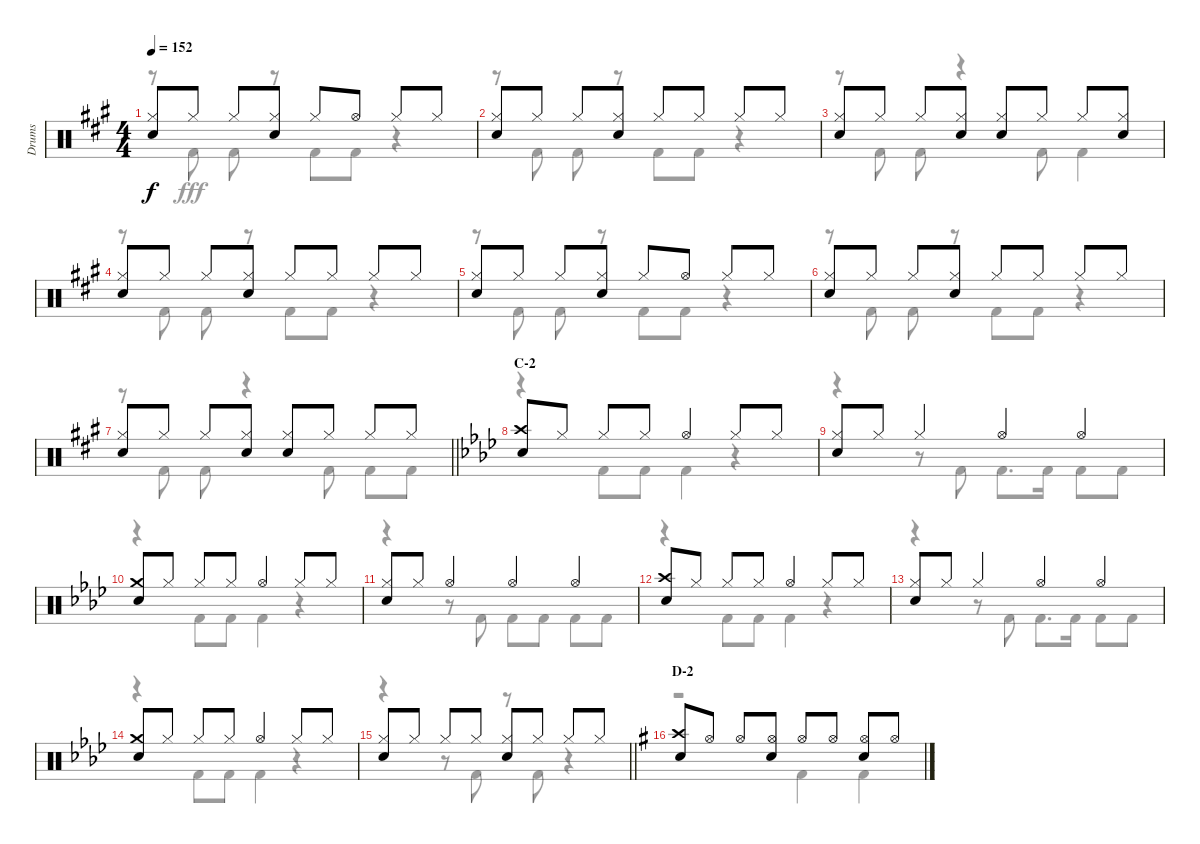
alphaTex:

\track ("Drums" "Drums") {instrument percussion}
\staff {score}
\articulation defaults
\voice
\ts (4 4)
\tempo 152
\clef neutral
\ks a
("Hi-Hat (closed)" "Snare (hit) 2").8{dy f} "Hi-Hat (closed)".8 "Hi-Hat (closed)".8 ("Hi-Hat (closed)" "Snare (hit) 2").8 "Hi-Hat (closed)".8 "Hi-Hat (open)".8 "Hi-Hat (closed)".8 "Hi-Hat (closed)".8 |
("Hi-Hat (closed)" "Snare (hit) 2").8 "Hi-Hat (closed)".8 "Hi-Hat (closed)".8 ("Hi-Hat (closed)" "Snare (hit) 2").8 "Hi-Hat (closed)".8 "Hi-Hat (closed)".8 "Hi-Hat (closed)".8 "Hi-Hat (closed)".8 |
("Hi-Hat (closed)" "Snare (hit) 2").8 "Hi-Hat (closed)".8 "Hi-Hat (closed)".8 ("Hi-Hat (closed)" "Snare (hit) 2").8 ("Hi-Hat (closed)" "Snare (hit) 2").8 "Hi-Hat (closed)".8 "Hi-Hat (closed)".8 ("Hi-Hat (closed)" "Snare (hit) 2").8 |
("Hi-Hat (closed)" "Snare (hit) 2").8 "Hi-Hat (closed)".8 "Hi-Hat (closed)".8 ("Hi-Hat (closed)" "Snare (hit) 2").8 "Hi-Hat (closed)".8 "Hi-Hat (closed)".8 "Hi-Hat (closed)".8 "Hi-Hat (closed)".8 |
("Hi-Hat (closed)" "Snare (hit) 2").8 "Hi-Hat (closed)".8 "Hi-Hat (closed)".8 ("Hi-Hat (closed)" "Snare (hit) 2").8 "Hi-Hat (closed)".8 "Hi-Hat (open)".8 "Hi-Hat (closed)".8 "Hi-Hat (closed)".8 |
("Hi-Hat (closed)" "Snare (hit) 2").8 "Hi-Hat (closed)".8 "Hi-Hat (closed)".8 ("Hi-Hat (closed)" "Snare (hit) 2").8 "Hi-Hat (closed)".8 "Hi-Hat (closed)".8 "Hi-Hat (closed)".8 "Hi-Hat (closed)".8 |
\barLineRight lightlight
("Hi-Hat (closed)" "Snare (hit) 2").8 "Hi-Hat (closed)".8 "Hi-Hat (closed)".8 ("Hi-Hat (closed)" "Snare (hit) 2").8 ("Hi-Hat (closed)" "Snare (hit) 2").8 "Hi-Hat (closed)".8 "Hi-Hat (closed)".8 "Hi-Hat (closed)".8 |
\section ("" "C-2")
\ks ab
("Crash high (hit)" "Snare (hit) 2").8 "Hi-Hat (closed)".8 "Hi-Hat (closed)".8 "Hi-Hat (closed)".8 "Hi-Hat (open)".4 "Hi-Hat (closed)".8 "Hi-Hat (closed)".8 |
("Hi-Hat (closed)" "Snare (hit) 2").8 "Hi-Hat (closed)".8 "Hi-Hat (closed)".4 "Hi-Hat (open)".4 "Hi-Hat (open)".4 |
("Crash medium (hit)" "Snare (hit) 2").8 "Hi-Hat (closed)".8 "Hi-Hat (closed)".8 "Hi-Hat (closed)".8 "Hi-Hat (open)".4 "Hi-Hat (closed)".8 "Hi-Hat (closed)".8 |
("Hi-Hat (closed)" "Snare (hit) 2").8 "Hi-Hat (closed)".8 "Hi-Hat (open)".4 "Hi-Hat (open)".4 "Hi-Hat (open)".4 |
("Crash high (hit)" "Snare (hit) 2").8 "Hi-Hat (closed)".8 "Hi-Hat (closed)".8 "Hi-Hat (closed)".8 "Hi-Hat (open)".4 "Hi-Hat (closed)".8 "Hi-Hat (closed)".8 |
("Hi-Hat (closed)" "Snare (hit) 2").8 "Hi-Hat (closed)".8 "Hi-Hat (closed)".4 "Hi-Hat (open)".4 "Hi-Hat (open)".4 |
("Crash medium (hit)" "Snare (hit) 2").8 "Hi-Hat (closed)".8 "Hi-Hat (closed)".8 "Hi-Hat (closed)".8 "Hi-Hat (open)".4 "Hi-Hat (closed)".8 "Hi-Hat (closed)".8 |
\barLineRight lightlight
("Hi-Hat (closed)" "Snare (hit) 2").8 "Hi-Hat (closed)".8 "Hi-Hat (closed)".8 "Hi-Hat (closed)".8 ("Hi-Hat (closed)" "Snare (hit) 2").8 "Hi-Hat (closed)".8 "Hi-Hat (closed)".8 "Hi-Hat (closed)".8 |
\section ("" "D-2")
\ks g
("Crash high (hit)" "Snare (hit) 2").8 "Hi-Hat (open)".8 "Hi-Hat (open)".8 ("Hi-Hat (open)" "Snare (hit) 2").8 "Hi-Hat (open)".8 "Hi-Hat (open)".8 ("Hi-Hat (open)" "Snare (hit) 2").8 "Hi-Hat (open)".8
\voice
\clef neutral
\ottava regular
\simile none
\ks a
r.8{dy fff} "Kick (hit) 2".8 "Kick (hit) 2".8 r.8 "Kick (hit) 2".8 "Kick (hit) 2".8 r.4 |
r.8 "Kick (hit) 2".8 "Kick (hit) 2".8 r.8 "Kick (hit) 2".8 "Kick (hit) 2".8 r.4 |
r.8 "Kick (hit) 2".8 "Kick (hit) 2".8 r.4 "Kick (hit) 2".8 "Kick (hit) 2".4 |
r.8 "Kick (hit) 2".8 "Kick (hit) 2".8 r.8 "Kick (hit) 2".8 "Kick (hit) 2".8 r.4 |
r.8 "Kick (hit) 2".8 "Kick (hit) 2".8 r.8 "Kick (hit) 2".8 "Kick (hit) 2".8 r.4 |
r.8 "Kick (hit) 2".8 "Kick (hit) 2".8 r.8 "Kick (hit) 2".8 "Kick (hit) 2".8 r.4 |
\barLineRight lightlight
r.8 "Kick (hit) 2".8 "Kick (hit) 2".8 r.4 "Kick (hit) 2".8 "Kick (hit) 2".8 "Kick (hit) 2".8 |
\ks ab
r.4 "Kick (hit) 2".8 "Kick (hit) 2".8 "Kick (hit) 2".4 r.4 |
r.4 r.8 "Kick (hit) 2".8 "Kick (hit) 2".8{d} "Kick (hit) 2".16 "Kick (hit) 2".8 "Kick (hit) 2".8 |
r.4 "Kick (hit) 2".8 "Kick (hit) 2".8 "Kick (hit) 2".4 r.4 |
r.4 r.8 "Kick (hit) 2".8 "Kick (hit) 2".8 "Kick (hit) 2".8 "Kick (hit) 2".8 "Kick (hit) 2".8 |
r.4 "Kick (hit) 2".8 "Kick (hit) 2".8 "Kick (hit) 2".4 r.4 |
r.4 r.8 "Kick (hit) 2".8 "Kick (hit) 2".8{d} "Kick (hit) 2".16 "Kick (hit) 2".8 "Kick (hit) 2".8 |
r.4 "Kick (hit) 2".8 "Kick (hit) 2".8 "Kick (hit) 2".4 r.4 |
\barLineRight lightlight
r.4 r.8 "Kick (hit) 2".8 r.8 "Kick (hit) 2".8 r.4 |
\ks g
r.2 "Kick (hit) 2".4 "Kick (hit) 2".4
